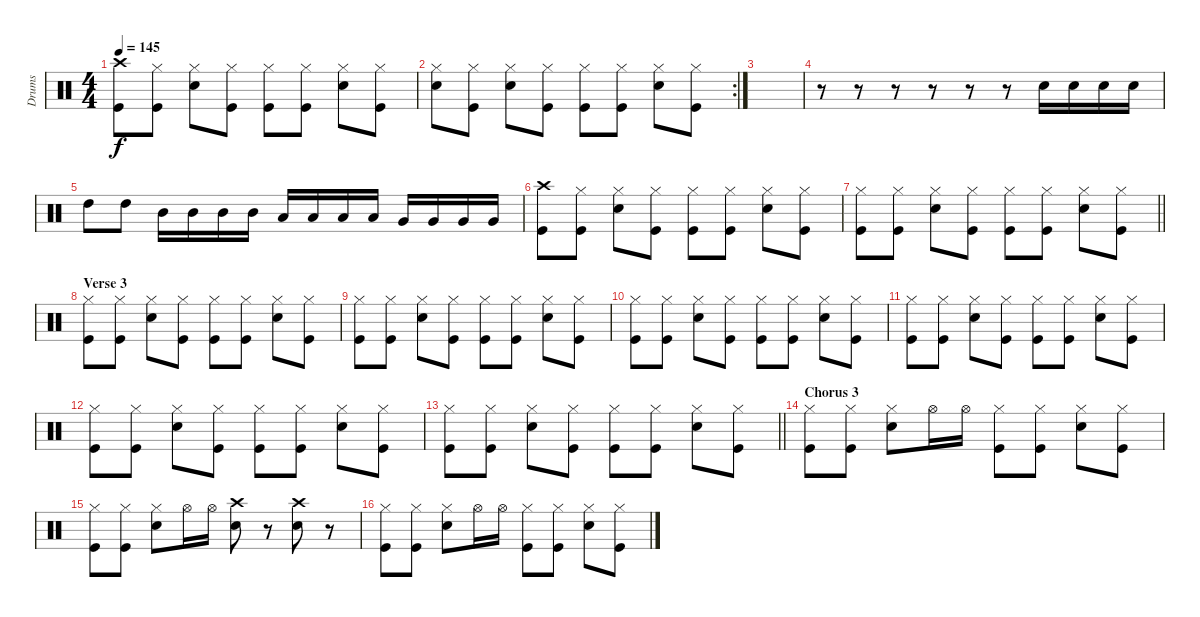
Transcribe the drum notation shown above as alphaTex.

\track ("Drums" "Drums") {instrument percussion}
\staff {score}
\articulation defaults
\ts (4 4)
\tempo 145
\clef neutral
\ks c
("Crash high (hit)" "Kick (hit)").8{dy f} ("Hi-Hat (closed)" "Kick (hit)").8 ("Hi-Hat (closed)" "Snare (hit) 2").8 ("Hi-Hat (closed)" "Kick (hit)").8 ("Hi-Hat (closed)" "Kick (hit)").8 ("Hi-Hat (closed)" "Kick (hit)").8 ("Hi-Hat (closed)" "Snare (hit) 2").8 ("Hi-Hat (closed)" "Kick (hit)").8 |
\rc 2
("Hi-Hat (closed)" "Snare (hit) 2").8 ("Hi-Hat (closed)" "Kick (hit)").8 ("Hi-Hat (closed)" "Snare (hit) 2").8 ("Hi-Hat (closed)" "Kick (hit)").8 ("Hi-Hat (closed)" "Kick (hit)").8 ("Hi-Hat (closed)" "Kick (hit)").8 ("Hi-Hat (closed)" "Snare (hit) 2").8 ("Hi-Hat (closed)" "Kick (hit)").8 |
|
r.8 r.8 r.8 r.8 r.8 r.8 "Snare (hit) 2".16 "Snare (hit) 2".16 "Snare (hit) 2".16 "Snare (hit) 2".16 |
"High Tom (hit)".8 "High Tom (hit)".8 "Mid Tom (hit)".16 "Mid Tom (hit)".16 "Mid Tom (hit)".16 "Mid Tom (hit)".16 "Low Tom (hit)".16 "Low Tom (hit)".16 "Low Tom (hit)".16 "Low Tom (hit)".16 "Very Low Tom (hit)".16 "Very Low Tom (hit)".16 "Very Low Tom (hit)".16 "Very Low Tom (hit)".16 |
("Crash high (hit)" "Kick (hit)").8 ("Hi-Hat (closed)" "Kick (hit)").8 ("Hi-Hat (closed)" "Snare (hit) 2").8 ("Hi-Hat (closed)" "Kick (hit)").8 ("Hi-Hat (closed)" "Kick (hit)").8 ("Hi-Hat (closed)" "Kick (hit)").8 ("Hi-Hat (closed)" "Snare (hit) 2").8 ("Hi-Hat (closed)" "Kick (hit)").8 |
\barLineRight lightlight
("Hi-Hat (closed)" "Kick (hit)").8 ("Hi-Hat (closed)" "Kick (hit)").8 ("Hi-Hat (closed)" "Snare (hit) 2").8 ("Hi-Hat (closed)" "Kick (hit)").8 ("Hi-Hat (closed)" "Kick (hit)").8 ("Hi-Hat (closed)" "Kick (hit)").8 ("Hi-Hat (closed)" "Snare (hit) 2").8 ("Hi-Hat (closed)" "Kick (hit)").8 |
\section ("" "Verse 3")
("Hi-Hat (closed)" "Kick (hit)").8 ("Hi-Hat (closed)" "Kick (hit)").8 ("Hi-Hat (closed)" "Snare (hit) 2").8 ("Hi-Hat (closed)" "Kick (hit)").8 ("Hi-Hat (closed)" "Kick (hit)").8 ("Hi-Hat (closed)" "Kick (hit)").8 ("Hi-Hat (closed)" "Snare (hit) 2").8 ("Hi-Hat (closed)" "Kick (hit)").8 |
("Hi-Hat (closed)" "Kick (hit)").8 ("Hi-Hat (closed)" "Kick (hit)").8 ("Hi-Hat (closed)" "Snare (hit) 2").8 ("Hi-Hat (closed)" "Kick (hit)").8 ("Hi-Hat (closed)" "Kick (hit)").8 ("Hi-Hat (closed)" "Kick (hit)").8 ("Hi-Hat (closed)" "Snare (hit) 2").8 ("Hi-Hat (closed)" "Kick (hit)").8 |
("Hi-Hat (closed)" "Kick (hit)").8 ("Hi-Hat (closed)" "Kick (hit)").8 ("Hi-Hat (closed)" "Snare (hit) 2").8 ("Hi-Hat (closed)" "Kick (hit)").8 ("Hi-Hat (closed)" "Kick (hit)").8 ("Hi-Hat (closed)" "Kick (hit)").8 ("Hi-Hat (closed)" "Snare (hit) 2").8 ("Hi-Hat (closed)" "Kick (hit)").8 |
("Hi-Hat (closed)" "Kick (hit)").8 ("Hi-Hat (closed)" "Kick (hit)").8 ("Hi-Hat (closed)" "Snare (hit) 2").8 ("Hi-Hat (closed)" "Kick (hit)").8 ("Hi-Hat (closed)" "Kick (hit)").8 ("Hi-Hat (closed)" "Kick (hit)").8 ("Hi-Hat (closed)" "Snare (hit) 2").8 ("Hi-Hat (closed)" "Kick (hit)").8 |
("Hi-Hat (closed)" "Kick (hit)").8 ("Hi-Hat (closed)" "Kick (hit)").8 ("Hi-Hat (closed)" "Snare (hit) 2").8 ("Hi-Hat (closed)" "Kick (hit)").8 ("Hi-Hat (closed)" "Kick (hit)").8 ("Hi-Hat (closed)" "Kick (hit)").8 ("Hi-Hat (closed)" "Snare (hit) 2").8 ("Hi-Hat (closed)" "Kick (hit)").8 |
\barLineRight lightlight
("Hi-Hat (closed)" "Kick (hit)").8 ("Hi-Hat (closed)" "Kick (hit)").8 ("Hi-Hat (closed)" "Snare (hit) 2").8 ("Hi-Hat (closed)" "Kick (hit)").8 ("Hi-Hat (closed)" "Kick (hit)").8 ("Hi-Hat (closed)" "Kick (hit)").8 ("Hi-Hat (closed)" "Snare (hit) 2").8 ("Hi-Hat (closed)" "Kick (hit)").8 |
\section ("" "Chorus 3")
("Hi-Hat (closed)" "Kick (hit)").8 ("Hi-Hat (closed)" "Kick (hit)").8 ("Hi-Hat (closed)" "Snare (hit) 2").8 "Hi-Hat (open)".16 "Hi-Hat (open)".16 ("Hi-Hat (closed)" "Kick (hit)").8 ("Hi-Hat (closed)" "Kick (hit)").8 ("Hi-Hat (closed)" "Snare (hit) 2").8 ("Hi-Hat (closed)" "Kick (hit)").8 |
("Hi-Hat (closed)" "Kick (hit)").8 ("Hi-Hat (closed)" "Kick (hit)").8 ("Hi-Hat (closed)" "Snare (hit) 2").8 "Hi-Hat (open)".16 "Hi-Hat (open)".16 ("Crash high (hit)" "Snare (hit) 2").8 r.8 ("Crash high (hit)" "Snare (hit) 2").8 r.8 |
("Hi-Hat (closed)" "Kick (hit)").8 ("Hi-Hat (closed)" "Kick (hit)").8 ("Hi-Hat (closed)" "Snare (hit) 2").8 "Hi-Hat (open)".16 "Hi-Hat (open)".16 ("Hi-Hat (closed)" "Kick (hit)").8 ("Hi-Hat (closed)" "Kick (hit)").8 ("Hi-Hat (closed)" "Snare (hit) 2").8 ("Hi-Hat (closed)" "Kick (hit)").8
